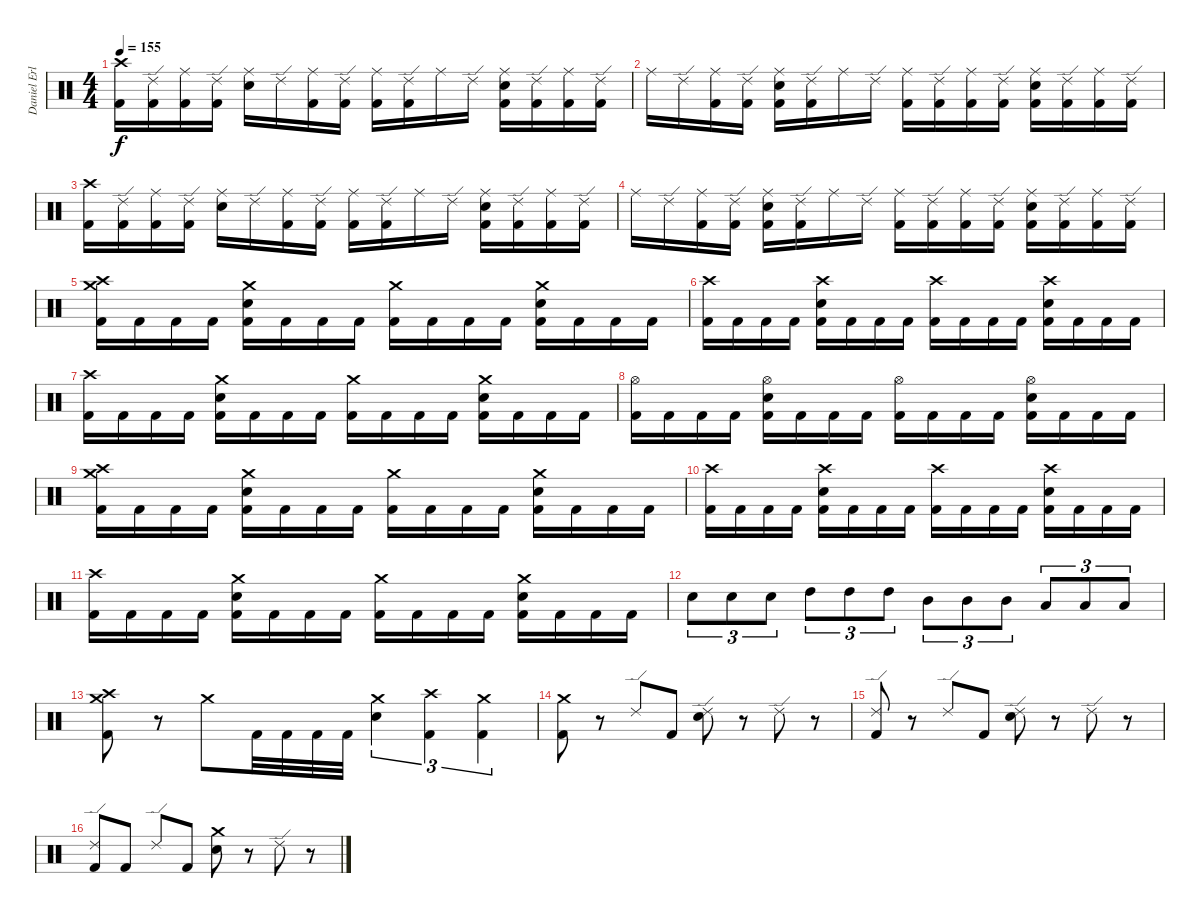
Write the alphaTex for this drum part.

\track ("Daniel Erlandsson" "Daniel Erl") {instrument percussion}
\staff {score}
\articulation defaults
\ts (4 4)
\tempo 155
\clef neutral
\ks c
("Crash high (hit)" "Kick (hit) 2").16{dy f} ("Ride (edge) 2" "Kick (hit) 2").16 ("Ride (middle)" "Kick (hit) 2").16 ("Ride (edge) 2" "Kick (hit) 2").16 ("Ride (middle)" "Snare (hit) 2").16 "Ride (edge) 2".16 ("Ride (middle)" "Kick (hit) 2").16 ("Ride (edge) 2" "Kick (hit) 2").16 ("Ride (middle)" "Kick (hit) 2").16 ("Ride (edge) 2" "Kick (hit) 2").16 "Ride (middle)".16 "Ride (edge) 2".16 ("Ride (middle)" "Snare (hit) 2" "Kick (hit) 2").16 ("Ride (edge) 2" "Kick (hit) 2").16 ("Ride (middle)" "Kick (hit) 2").16 ("Ride (edge) 2" "Kick (hit) 2").16 |
"Ride (middle)".16 "Ride (edge) 2".16 ("Ride (middle)" "Kick (hit) 2").16 ("Ride (edge) 2" "Kick (hit) 2").16 ("Ride (middle)" "Snare (hit) 2" "Kick (hit) 2").16 ("Ride (edge) 2" "Kick (hit) 2").16 "Ride (middle)".16 "Ride (edge) 2".16 ("Ride (middle)" "Kick (hit) 2").16 ("Ride (edge) 2" "Kick (hit) 2").16 ("Ride (middle)" "Kick (hit) 2").16 ("Ride (edge) 2" "Kick (hit) 2").16 ("Ride (middle)" "Snare (hit) 2" "Kick (hit) 2").16 ("Ride (edge) 2" "Kick (hit) 2").16 ("Ride (middle)" "Kick (hit) 2").16 ("Ride (edge) 2" "Kick (hit) 2").16 |
("Crash high (hit)" "Kick (hit) 2").16 ("Ride (edge) 2" "Kick (hit) 2").16 ("Ride (middle)" "Kick (hit) 2").16 ("Ride (edge) 2" "Kick (hit) 2").16 ("Ride (middle)" "Snare (hit) 2").16 "Ride (edge) 2".16 ("Ride (middle)" "Kick (hit) 2").16 ("Ride (edge) 2" "Kick (hit) 2").16 ("Ride (middle)" "Kick (hit) 2").16 ("Ride (edge) 2" "Kick (hit) 2").16 "Ride (middle)".16 "Ride (edge) 2".16 ("Ride (middle)" "Snare (hit) 2" "Kick (hit) 2").16 ("Ride (edge) 2" "Kick (hit) 2").16 ("Ride (middle)" "Kick (hit) 2").16 ("Ride (edge) 2" "Kick (hit) 2").16 |
"Ride (middle)".16 "Ride (edge) 2".16 ("Ride (middle)" "Kick (hit) 2").16 ("Ride (edge) 2" "Kick (hit) 2").16 ("Ride (middle)" "Snare (hit) 2" "Kick (hit) 2").16 ("Ride (edge) 2" "Kick (hit) 2").16 "Ride (middle)".16 "Ride (edge) 2".16 ("Ride (middle)" "Kick (hit) 2").16 ("Ride (edge) 2" "Kick (hit) 2").16 ("Ride (middle)" "Kick (hit) 2").16 ("Ride (edge) 2" "Kick (hit) 2").16 ("Ride (middle)" "Snare (hit) 2" "Kick (hit) 2").16 ("Ride (edge) 2" "Kick (hit) 2").16 ("Ride (middle)" "Kick (hit) 2").16 ("Ride (edge) 2" "Kick (hit) 2").16 |
("Crash high (hit)" "Crash medium (hit)" "Kick (hit) 2").16 "Kick (hit) 2".16 "Kick (hit) 2".16 "Kick (hit) 2".16 ("Crash medium (hit)" "Snare (hit) 2" "Kick (hit) 2").16 "Kick (hit) 2".16 "Kick (hit) 2".16 "Kick (hit) 2".16 ("Crash medium (hit)" "Kick (hit) 2").16 "Kick (hit) 2".16 "Kick (hit) 2".16 "Kick (hit) 2".16 ("Crash medium (hit)" "Snare (hit) 2" "Kick (hit) 2").16 "Kick (hit) 2".16 "Kick (hit) 2".16 "Kick (hit) 2".16 |
("Crash high (hit)" "Kick (hit) 2").16 "Kick (hit) 2".16 "Kick (hit) 2".16 "Kick (hit) 2".16 ("Crash high (hit)" "Snare (hit) 2" "Kick (hit) 2").16 "Kick (hit) 2".16 "Kick (hit) 2".16 "Kick (hit) 2".16 ("Crash high (hit)" "Kick (hit) 2").16 "Kick (hit) 2".16 "Kick (hit) 2".16 "Kick (hit) 2".16 ("Crash high (hit)" "Snare (hit) 2" "Kick (hit) 2").16 "Kick (hit) 2".16 "Kick (hit) 2".16 "Kick (hit) 2".16 |
("Crash high (hit)" "Kick (hit) 2").16 "Kick (hit) 2".16 "Kick (hit) 2".16 "Kick (hit) 2".16 ("Crash medium (hit)" "Snare (hit) 2" "Kick (hit) 2").16 "Kick (hit) 2".16 "Kick (hit) 2".16 "Kick (hit) 2".16 ("Crash medium (hit)" "Kick (hit) 2").16 "Kick (hit) 2".16 "Kick (hit) 2".16 "Kick (hit) 2".16 ("Crash medium (hit)" "Snare (hit) 2" "Kick (hit) 2").16 "Kick (hit) 2".16 "Kick (hit) 2".16 "Kick (hit) 2".16 |
("Hi-Hat (open)" "Kick (hit) 2").16 "Kick (hit) 2".16 "Kick (hit) 2".16 "Kick (hit) 2".16 ("Hi-Hat (open)" "Snare (hit) 2" "Kick (hit) 2").16 "Kick (hit) 2".16 "Kick (hit) 2".16 "Kick (hit) 2".16 ("Hi-Hat (open)" "Kick (hit) 2").16 "Kick (hit) 2".16 "Kick (hit) 2".16 "Kick (hit) 2".16 ("Hi-Hat (open)" "Snare (hit) 2" "Kick (hit) 2").16 "Kick (hit) 2".16 "Kick (hit) 2".16 "Kick (hit) 2".16 |
("Crash high (hit)" "Crash medium (hit)" "Kick (hit) 2").16 "Kick (hit) 2".16 "Kick (hit) 2".16 "Kick (hit) 2".16 ("Crash medium (hit)" "Snare (hit) 2" "Kick (hit) 2").16 "Kick (hit) 2".16 "Kick (hit) 2".16 "Kick (hit) 2".16 ("Crash medium (hit)" "Kick (hit) 2").16 "Kick (hit) 2".16 "Kick (hit) 2".16 "Kick (hit) 2".16 ("Crash medium (hit)" "Snare (hit) 2" "Kick (hit) 2").16 "Kick (hit) 2".16 "Kick (hit) 2".16 "Kick (hit) 2".16 |
("Crash high (hit)" "Kick (hit) 2").16 "Kick (hit) 2".16 "Kick (hit) 2".16 "Kick (hit) 2".16 ("Crash high (hit)" "Snare (hit) 2" "Kick (hit) 2").16 "Kick (hit) 2".16 "Kick (hit) 2".16 "Kick (hit) 2".16 ("Crash high (hit)" "Kick (hit) 2").16 "Kick (hit) 2".16 "Kick (hit) 2".16 "Kick (hit) 2".16 ("Crash high (hit)" "Snare (hit) 2" "Kick (hit) 2").16 "Kick (hit) 2".16 "Kick (hit) 2".16 "Kick (hit) 2".16 |
("Crash high (hit)" "Kick (hit) 2").16 "Kick (hit) 2".16 "Kick (hit) 2".16 "Kick (hit) 2".16 ("Crash medium (hit)" "Snare (hit) 2" "Kick (hit) 2").16 "Kick (hit) 2".16 "Kick (hit) 2".16 "Kick (hit) 2".16 ("Crash medium (hit)" "Kick (hit) 2").16 "Kick (hit) 2".16 "Kick (hit) 2".16 "Kick (hit) 2".16 ("Crash medium (hit)" "Snare (hit) 2" "Kick (hit) 2").16 "Kick (hit) 2".16 "Kick (hit) 2".16 "Kick (hit) 2".16 |
"Snare (hit) 2".8{tu (3 2)} "Snare (hit) 2".8{tu (3 2)} "Snare (hit) 2".8{tu (3 2)} "High Tom (hit)".8{tu (3 2)} "High Tom (hit)".8{tu (3 2)} "High Tom (hit)".8{tu (3 2)} "Mid Tom (hit)".8{tu (3 2)} "Mid Tom (hit)".8{tu (3 2)} "Mid Tom (hit)".8{tu (3 2)} "Low Tom (hit)".8{tu (3 2)} "Low Tom (hit)".8{tu (3 2)} "Low Tom (hit)".8{tu (3 2)} |
("Crash high (hit)" "Crash medium (hit)" "Kick (hit) 2").8 r.8 "Crash medium (hit)".8 "Kick (hit) 2".32 "Kick (hit) 2".32 "Kick (hit) 2".32 "Kick (hit) 2".32 ("Crash medium (hit)" "Snare (hit) 2").4{tu (3 2)} ("Crash high (hit)" "Kick (hit) 2").4{tu (3 2)} ("Crash medium (hit)" "Kick (hit) 2").4{tu (3 2)} |
("Crash medium (hit)" "Kick (hit) 2").8 r.8 "Ride (edge) 2".8 "Kick (hit) 2".8 ("Ride (edge) 2" "Snare (hit) 2").8 r.8 "Ride (edge) 2".8 r.8 |
("Ride (edge) 2" "Kick (hit) 2").8 r.8 "Ride (edge) 2".8 "Kick (hit) 2".8 ("Ride (edge) 2" "Snare (hit) 2").8 r.8 "Ride (edge) 2".8 r.8 |
("Ride (edge) 2" "Kick (hit) 2").8 "Kick (hit) 2".8 "Ride (edge) 2".8 "Kick (hit) 2".8 ("Crash medium (hit)" "Snare (hit) 2").8 r.8 "Ride (edge) 2".8 r.8
